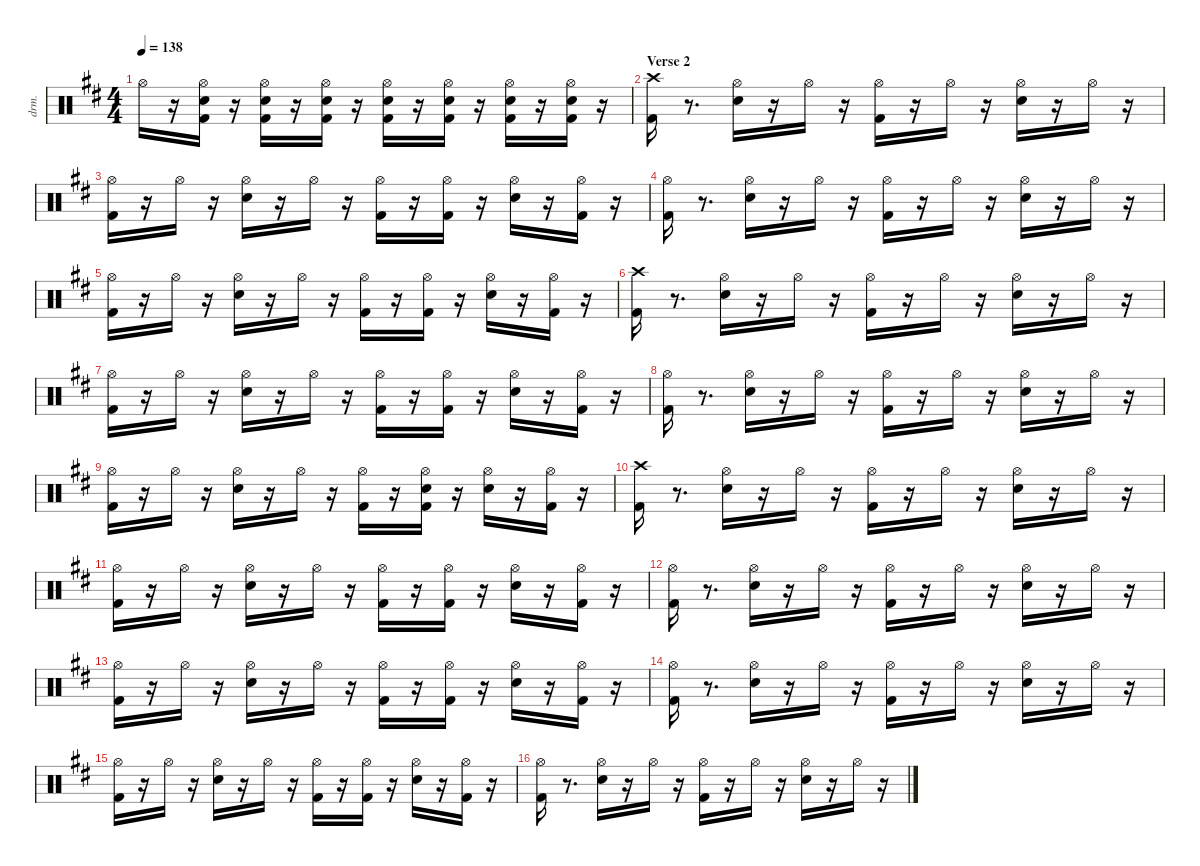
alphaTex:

\hideDynamics
\bracketExtendMode groupsimilarinstruments
\otherSystemsTrackNameOrientation horizontal
\track ("Drumkit" "drm.") {instrument percussion}
\staff {score}
\articulation defaults
\ts (4 4)
\tempo 138
\clef neutral
\ks d "Hi-Hat (open)"{acc #}.16{dy mf}
r.16 ("Kick (hit) 2"{acc forcenatural} "Snare (hit) 2"{acc forcenatural} "Hi-Hat (open)"{acc #}).16{dy f} r.16 ("Kick (hit) 2"{acc forcenatural} "Snare (hit) 2"{acc forcenatural} "Hi-Hat (open)"{acc #}).16 r.16 ("Kick (hit) 2"{acc forcenatural} "Snare (hit) 2"{acc forcenatural} "Hi-Hat (open)"{acc #}).16{dy ff} r.16 ("Kick (hit) 2"{acc forcenatural} "Snare (hit) 2"{acc forcenatural} "Hi-Hat (open)"{acc #}).16{dy fff} r.16 ("Kick (hit) 2"{acc forcenatural} "Snare (hit) 2"{acc forcenatural} "Hi-Hat (open)"{acc #}).16{dy ff} r.16 ("Kick (hit) 2"{acc forcenatural} "Snare (hit) 2"{acc forcenatural} "Hi-Hat (open)"{acc #}).16{dy fff} r.16 ("Kick (hit) 2"{acc forcenatural} "Snare (hit) 2"{acc forcenatural} "Hi-Hat (open)"{acc #}).16 r.16 |
\section ("" "Verse 2")
("Kick (hit) 2"{acc forcenatural} "Crash high (hit)"{acc #}).16{dy f} r.8{d} ("Snare (hit) 2"{acc forcenatural} "Hi-Hat (open)"{acc #}).16 r.16 "Hi-Hat (open)"{acc #}.16{dy p} r.16 ("Kick (hit) 2"{acc forcenatural} "Hi-Hat (open)"{acc #}).16{dy f} r.16 "Hi-Hat (open)"{acc #}.16{dy p} r.16 ("Snare (hit) 2"{acc forcenatural} "Hi-Hat (open)"{acc #}).16{dy f} r.16 "Hi-Hat (open)"{acc #}.16{dy p} r.16 |
("Kick (hit) 2"{acc forcenatural} "Hi-Hat (open)"{acc #}).16{dy ff} r.16 "Hi-Hat (open)"{acc #}.16{dy p} r.16 ("Snare (hit) 2"{acc forcenatural} "Hi-Hat (open)"{acc #}).16{dy mf} r.16 "Hi-Hat (open)"{acc #}.16{dy p} r.16 ("Kick (hit) 2"{acc forcenatural} "Hi-Hat (open)"{acc #}).16{dy ff} r.16 ("Kick (hit) 2"{acc forcenatural} "Hi-Hat (open)"{acc #}).16 r.16 ("Snare (hit) 2"{acc forcenatural} "Hi-Hat (open)"{acc #}).16{dy mp} r.16 ("Kick (hit) 2"{acc forcenatural} "Hi-Hat (open)"{acc #}).16{dy f} r.16 |
("Kick (hit) 2"{acc forcenatural} "Hi-Hat (open)"{acc #}).16 r.8{d} ("Snare (hit) 2"{acc forcenatural} "Hi-Hat (open)"{acc #}).16 r.16 "Hi-Hat (open)"{acc #}.16{dy p} r.16 ("Kick (hit) 2"{acc forcenatural} "Hi-Hat (open)"{acc #}).16{dy f} r.16 "Hi-Hat (open)"{acc #}.16{dy p} r.16 ("Snare (hit) 2"{acc forcenatural} "Hi-Hat (open)"{acc #}).16{dy f} r.16 "Hi-Hat (open)"{acc #}.16{dy p} r.16 |
("Kick (hit) 2"{acc forcenatural} "Hi-Hat (open)"{acc #}).16{dy fff} r.16 "Hi-Hat (open)"{acc #}.16{dy p} r.16 ("Snare (hit) 2"{acc forcenatural} "Hi-Hat (open)"{acc #}).16{dy f} r.16 "Hi-Hat (open)"{acc #}.16{dy p} r.16 ("Kick (hit) 2"{acc forcenatural} "Hi-Hat (open)"{acc #}).16{dy ff} r.16 ("Kick (hit) 2"{acc forcenatural} "Hi-Hat (open)"{acc #}).16 r.16 ("Snare (hit) 2"{acc forcenatural} "Hi-Hat (open)"{acc #}).16{dy mp} r.16 ("Kick (hit) 2"{acc forcenatural} "Hi-Hat (open)"{acc #}).16{dy f} r.16 |
("Kick (hit) 2"{acc forcenatural} "Crash high (hit)"{acc #}).16 r.8{d} ("Snare (hit) 2"{acc forcenatural} "Hi-Hat (open)"{acc #}).16 r.16 "Hi-Hat (open)"{acc #}.16{dy p} r.16 ("Kick (hit) 2"{acc forcenatural} "Hi-Hat (open)"{acc #}).16{dy f} r.16 "Hi-Hat (open)"{acc #}.16{dy p} r.16 ("Snare (hit) 2"{acc forcenatural} "Hi-Hat (open)"{acc #}).16{dy f} r.16 "Hi-Hat (open)"{acc #}.16{dy p} r.16 |
("Kick (hit) 2"{acc forcenatural} "Hi-Hat (open)"{acc #}).16{dy fff} r.16 "Hi-Hat (open)"{acc #}.16{dy p} r.16 ("Snare (hit) 2"{acc forcenatural} "Hi-Hat (open)"{acc #}).16{dy f} r.16 "Hi-Hat (open)"{acc #}.16{dy p} r.16 ("Kick (hit) 2"{acc forcenatural} "Hi-Hat (open)"{acc #}).16{dy ff} r.16 ("Kick (hit) 2"{acc forcenatural} "Hi-Hat (open)"{acc #}).16 r.16 ("Snare (hit) 2"{acc forcenatural} "Hi-Hat (open)"{acc #}).16{dy mp} r.16 ("Kick (hit) 2"{acc forcenatural} "Hi-Hat (open)"{acc #}).16{dy f} r.16 |
("Kick (hit) 2"{acc forcenatural} "Hi-Hat (open)"{acc #}).16 r.8{d} ("Snare (hit) 2"{acc forcenatural} "Hi-Hat (open)"{acc #}).16 r.16 "Hi-Hat (open)"{acc #}.16{dy p} r.16 ("Kick (hit) 2"{acc forcenatural} "Hi-Hat (open)"{acc #}).16{dy f} r.16 "Hi-Hat (open)"{acc #}.16{dy p} r.16 ("Snare (hit) 2"{acc forcenatural} "Hi-Hat (open)"{acc #}).16{dy f} r.16 "Hi-Hat (open)"{acc #}.16{dy p} r.16 |
("Kick (hit) 2"{acc forcenatural} "Hi-Hat (open)"{acc #}).16{dy ff} r.16 "Hi-Hat (open)"{acc #}.16{dy p} r.16 ("Snare (hit) 2"{acc forcenatural} "Hi-Hat (open)"{acc #}).16{dy mf} r.16 "Hi-Hat (open)"{acc #}.16{dy p} r.16 ("Kick (hit) 2"{acc forcenatural} "Hi-Hat (open)"{acc #}).16{dy ff} r.16 ("Kick (hit) 2"{acc forcenatural} "Snare (hit) 2"{acc forcenatural} "Hi-Hat (open)"{acc #}).16 r.16 ("Snare (hit) 2"{acc forcenatural} "Hi-Hat (open)"{acc #}).16 r.16 ("Kick (hit) 2"{acc forcenatural} "Hi-Hat (open)"{acc #}).16{dy f} r.16 |
("Kick (hit) 2"{acc forcenatural} "Crash high (hit)"{acc #}).16 r.8{d} ("Snare (hit) 2"{acc forcenatural} "Hi-Hat (open)"{acc #}).16 r.16 "Hi-Hat (open)"{acc #}.16{dy p} r.16 ("Kick (hit) 2"{acc forcenatural} "Hi-Hat (open)"{acc #}).16{dy f} r.16 "Hi-Hat (open)"{acc #}.16{dy p} r.16 ("Snare (hit) 2"{acc forcenatural} "Hi-Hat (open)"{acc #}).16{dy f} r.16 "Hi-Hat (open)"{acc #}.16{dy p} r.16 |
("Kick (hit) 2"{acc forcenatural} "Hi-Hat (open)"{acc #}).16{dy fff} r.16 "Hi-Hat (open)"{acc #}.16{dy p} r.16 ("Snare (hit) 2"{acc forcenatural} "Hi-Hat (open)"{acc #}).16{dy f} r.16 "Hi-Hat (open)"{acc #}.16{dy p} r.16 ("Kick (hit) 2"{acc forcenatural} "Hi-Hat (open)"{acc #}).16{dy ff} r.16 ("Kick (hit) 2"{acc forcenatural} "Hi-Hat (open)"{acc #}).16 r.16 ("Snare (hit) 2"{acc forcenatural} "Hi-Hat (open)"{acc #}).16{dy mp} r.16 ("Kick (hit) 2"{acc forcenatural} "Hi-Hat (open)"{acc #}).16{dy f} r.16 |
("Kick (hit) 2"{acc forcenatural} "Hi-Hat (open)"{acc #}).16 r.8{d} ("Snare (hit) 2"{acc forcenatural} "Hi-Hat (open)"{acc #}).16 r.16 "Hi-Hat (open)"{acc #}.16{dy p} r.16 ("Kick (hit) 2"{acc forcenatural} "Hi-Hat (open)"{acc #}).16{dy f} r.16 "Hi-Hat (open)"{acc #}.16{dy p} r.16 ("Snare (hit) 2"{acc forcenatural} "Hi-Hat (open)"{acc #}).16{dy f} r.16 "Hi-Hat (open)"{acc #}.16{dy p} r.16 |
("Kick (hit) 2"{acc forcenatural} "Hi-Hat (open)"{acc #}).16{dy ff} r.16 "Hi-Hat (open)"{acc #}.16{dy p} r.16 ("Snare (hit) 2"{acc forcenatural} "Hi-Hat (open)"{acc #}).16{dy mf} r.16 "Hi-Hat (open)"{acc #}.16{dy p} r.16 ("Kick (hit) 2"{acc forcenatural} "Hi-Hat (open)"{acc #}).16{dy ff} r.16 ("Kick (hit) 2"{acc forcenatural} "Hi-Hat (open)"{acc #}).16 r.16 ("Snare (hit) 2"{acc forcenatural} "Hi-Hat (open)"{acc #}).16{dy mp} r.16 ("Kick (hit) 2"{acc forcenatural} "Hi-Hat (open)"{acc #}).16{dy f} r.16 |
("Kick (hit) 2"{acc forcenatural} "Hi-Hat (open)"{acc #}).16 r.8{d} ("Snare (hit) 2"{acc forcenatural} "Hi-Hat (open)"{acc #}).16 r.16 "Hi-Hat (open)"{acc #}.16{dy p} r.16 ("Kick (hit) 2"{acc forcenatural} "Hi-Hat (open)"{acc #}).16{dy f} r.16 "Hi-Hat (open)"{acc #}.16{dy p} r.16 ("Snare (hit) 2"{acc forcenatural} "Hi-Hat (open)"{acc #}).16{dy f} r.16 "Hi-Hat (open)"{acc #}.16{dy p} r.16 |
("Kick (hit) 2"{acc forcenatural} "Hi-Hat (open)"{acc #}).16{dy fff} r.16 "Hi-Hat (open)"{acc #}.16{dy p} r.16 ("Snare (hit) 2"{acc forcenatural} "Hi-Hat (open)"{acc #}).16{dy f} r.16 "Hi-Hat (open)"{acc #}.16{dy p} r.16 ("Kick (hit) 2"{acc forcenatural} "Hi-Hat (open)"{acc #}).16{dy ff} r.16 ("Kick (hit) 2"{acc forcenatural} "Hi-Hat (open)"{acc #}).16 r.16 ("Snare (hit) 2"{acc forcenatural} "Hi-Hat (open)"{acc #}).16{dy mp} r.16 ("Kick (hit) 2"{acc forcenatural} "Hi-Hat (open)"{acc #}).16{dy f} r.16 |
("Kick (hit) 2"{acc forcenatural} "Hi-Hat (open)"{acc #}).16 r.8{d} ("Snare (hit) 2"{acc forcenatural} "Hi-Hat (open)"{acc #}).16 r.16 "Hi-Hat (open)"{acc #}.16{dy p} r.16 ("Kick (hit) 2"{acc forcenatural} "Hi-Hat (open)"{acc #}).16{dy f} r.16 "Hi-Hat (open)"{acc #}.16{dy p} r.16 ("Snare (hit) 2"{acc forcenatural} "Hi-Hat (open)"{acc #}).16{dy f} r.16 "Hi-Hat (open)"{acc #}.16{dy p} r.16
